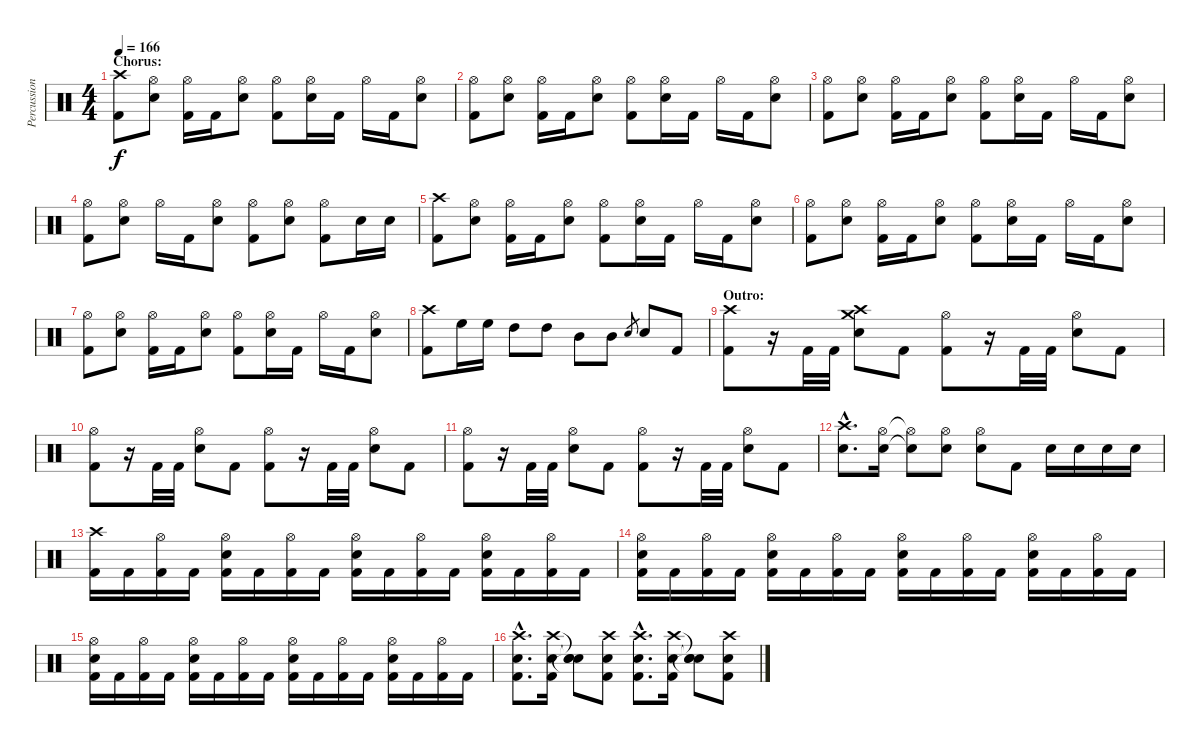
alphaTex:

\track ("Percussion" "Percussion") {instrument percussion}
\staff {score}
\articulation defaults
\ts (4 4)
\section ("" "Chorus:")
\tempo 166
\clef neutral
\ks c
("Crash high (hit)" "Kick (hit) 2").8{dy f} ("Hi-Hat (open)" "Electric Snare (hit)").8 ("Hi-Hat (open)" "Kick (hit) 2").16 "Kick (hit) 2".16 ("Hi-Hat (open)" "Electric Snare (hit)").8 ("Hi-Hat (open)" "Kick (hit) 2").8 ("Hi-Hat (open)" "Electric Snare (hit)").16 "Kick (hit) 2".16 "Hi-Hat (open)".16 "Kick (hit) 2".16 ("Hi-Hat (open)" "Electric Snare (hit)").8 |
("Hi-Hat (open)" "Kick (hit) 2").8 ("Hi-Hat (open)" "Electric Snare (hit)").8 ("Hi-Hat (open)" "Kick (hit) 2").16 "Kick (hit) 2".16 ("Hi-Hat (open)" "Electric Snare (hit)").8 ("Hi-Hat (open)" "Kick (hit) 2").8 ("Hi-Hat (open)" "Electric Snare (hit)").16 "Kick (hit) 2".16 "Hi-Hat (open)".16 "Kick (hit) 2".16 ("Hi-Hat (open)" "Electric Snare (hit)").8 |
("Hi-Hat (open)" "Kick (hit) 2").8 ("Hi-Hat (open)" "Electric Snare (hit)").8 ("Hi-Hat (open)" "Kick (hit) 2").16 "Kick (hit) 2".16 ("Hi-Hat (open)" "Electric Snare (hit)").8 ("Hi-Hat (open)" "Kick (hit) 2").8 ("Hi-Hat (open)" "Electric Snare (hit)").16 "Kick (hit) 2".16 "Hi-Hat (open)".16 "Kick (hit) 2".16 ("Hi-Hat (open)" "Electric Snare (hit)").8 |
("Hi-Hat (open)" "Kick (hit) 2").8 ("Hi-Hat (open)" "Electric Snare (hit)").8 "Hi-Hat (open)".16 "Kick (hit) 2".16 ("Hi-Hat (open)" "Electric Snare (hit)").8 ("Hi-Hat (open)" "Kick (hit) 2").8 ("Hi-Hat (open)" "Electric Snare (hit)").8 ("Hi-Hat (open)" "Kick (hit) 2").8 "Electric Snare (hit)".16 "Electric Snare (hit)".16 |
("Crash high (hit)" "Kick (hit) 2").8 ("Hi-Hat (open)" "Electric Snare (hit)").8 ("Hi-Hat (open)" "Kick (hit) 2").16 "Kick (hit) 2".16 ("Hi-Hat (open)" "Electric Snare (hit)").8 ("Hi-Hat (open)" "Kick (hit) 2").8 ("Hi-Hat (open)" "Electric Snare (hit)").16 "Kick (hit) 2".16 "Hi-Hat (open)".16 "Kick (hit) 2".16 ("Hi-Hat (open)" "Electric Snare (hit)").8 |
("Hi-Hat (open)" "Kick (hit) 2").8 ("Hi-Hat (open)" "Electric Snare (hit)").8 ("Hi-Hat (open)" "Kick (hit) 2").16 "Kick (hit) 2".16 ("Hi-Hat (open)" "Electric Snare (hit)").8 ("Hi-Hat (open)" "Kick (hit) 2").8 ("Hi-Hat (open)" "Electric Snare (hit)").16 "Kick (hit) 2".16 "Hi-Hat (open)".16 "Kick (hit) 2".16 ("Hi-Hat (open)" "Electric Snare (hit)").8 |
("Hi-Hat (open)" "Kick (hit) 2").8 ("Hi-Hat (open)" "Electric Snare (hit)").8 ("Hi-Hat (open)" "Kick (hit) 2").16 "Kick (hit) 2".16 ("Hi-Hat (open)" "Electric Snare (hit)").8 ("Hi-Hat (open)" "Kick (hit) 2").8 ("Hi-Hat (open)" "Electric Snare (hit)").16 "Kick (hit) 2".16 "Hi-Hat (open)".16 "Kick (hit) 2".16 ("Hi-Hat (open)" "Electric Snare (hit)").8 |
("Crash high (hit)" "Kick (hit) 2").8 "High Floor Tom (hit)".16 "High Floor Tom (hit)".16 "High Tom (hit)".8 "High Tom (hit)".8 "Mid Tom (hit)".8 "Mid Tom (hit)".8 "Electric Snare (hit)".8{gr} "Electric Snare (hit)".8 "Kick (hit) 2".8 |
\section ("" "Outro:")
("Crash high (hit)" "Kick (hit) 2").8 r.16 "Kick (hit) 2".32 "Kick (hit) 2".32 ("Crash high (hit)" "Crash medium (hit)" "Electric Snare (hit)").8 "Kick (hit) 2".8 ("Hi-Hat (open)" "Kick (hit) 2").8 r.16 "Kick (hit) 2".32 "Kick (hit) 2".32 ("Hi-Hat (open)" "Electric Snare (hit)").8 "Kick (hit) 2".8 |
("Hi-Hat (open)" "Kick (hit) 2").8 r.16 "Kick (hit) 2".32 "Kick (hit) 2".32 ("Hi-Hat (open)" "Electric Snare (hit)").8 "Kick (hit) 2".8 ("Hi-Hat (open)" "Kick (hit) 2").8 r.16 "Kick (hit) 2".32 "Kick (hit) 2".32 ("Hi-Hat (open)" "Electric Snare (hit)").8 "Kick (hit) 2".8 |
("Hi-Hat (open)" "Kick (hit) 2").8 r.16 "Kick (hit) 2".32 "Kick (hit) 2".32 ("Hi-Hat (open)" "Electric Snare (hit)").8 "Kick (hit) 2".8 ("Hi-Hat (open)" "Kick (hit) 2").8 r.16 "Kick (hit) 2".32 "Kick (hit) 2".32 ("Hi-Hat (open)" "Electric Snare (hit)").8 "Kick (hit) 2".8 |
("Crash high (hit)"{hac} "Electric Snare (hit)"{hac}).8{d} ("Hi-Hat (open)" "Electric Snare (hit)").16 ("Hi-Hat (open)"{t} "Snare (hit)"{t}).8 ("Hi-Hat (open)" "Electric Snare (hit)").8 ("Hi-Hat (open)" "Electric Snare (hit)").8 "Kick (hit) 2".8 "Electric Snare (hit)".16 "Electric Snare (hit)".16 "Electric Snare (hit)".16 "Electric Snare (hit)".16 |
("Crash high (hit)" "Kick (hit) 2").16 "Kick (hit) 2".16 ("Hi-Hat (open)" "Kick (hit) 2").16 "Kick (hit) 2".16 ("Hi-Hat (open)" "Electric Snare (hit)" "Kick (hit) 2").16 "Kick (hit) 2".16 ("Hi-Hat (open)" "Kick (hit) 2").16 "Kick (hit) 2".16 ("Hi-Hat (open)" "Electric Snare (hit)" "Kick (hit) 2").16 "Kick (hit) 2".16 ("Hi-Hat (open)" "Kick (hit) 2").16 "Kick (hit) 2".16 ("Hi-Hat (open)" "Electric Snare (hit)" "Kick (hit) 2").16 "Kick (hit) 2".16 ("Hi-Hat (open)" "Kick (hit) 2").16 "Kick (hit) 2".16 |
("Hi-Hat (open)" "Electric Snare (hit)" "Kick (hit) 2").16 "Kick (hit) 2".16 ("Hi-Hat (open)" "Kick (hit) 2").16 "Kick (hit) 2".16 ("Hi-Hat (open)" "Electric Snare (hit)" "Kick (hit) 2").16 "Kick (hit) 2".16 ("Hi-Hat (open)" "Kick (hit) 2").16 "Kick (hit) 2".16 ("Hi-Hat (open)" "Electric Snare (hit)" "Kick (hit) 2").16 "Kick (hit) 2".16 ("Hi-Hat (open)" "Kick (hit) 2").16 "Kick (hit) 2".16 ("Hi-Hat (open)" "Electric Snare (hit)" "Kick (hit) 2").16 "Kick (hit) 2".16 ("Hi-Hat (open)" "Kick (hit) 2").16 "Kick (hit) 2".16 |
("Hi-Hat (open)" "Electric Snare (hit)" "Kick (hit) 2").16 "Kick (hit) 2".16 ("Hi-Hat (open)" "Kick (hit) 2").16 "Kick (hit) 2".16 ("Hi-Hat (open)" "Electric Snare (hit)" "Kick (hit) 2").16 "Kick (hit) 2".16 ("Hi-Hat (open)" "Kick (hit) 2").16 "Kick (hit) 2".16 ("Hi-Hat (open)" "Electric Snare (hit)" "Kick (hit) 2").16 "Kick (hit) 2".16 ("Hi-Hat (open)" "Kick (hit) 2").16 "Kick (hit) 2".16 ("Hi-Hat (open)" "Electric Snare (hit)" "Kick (hit) 2").16 "Kick (hit) 2".16 ("Hi-Hat (open)" "Kick (hit) 2").16 "Kick (hit) 2".16 |
("Crash high (hit)"{hac} "Electric Snare (hit)"{hac} "Kick (hit) 2"{hac}).8{d} ("Crash high (hit)" "Electric Snare (hit)" "Kick (hit) 2").16 ("Snare (hit)"{t} "Snare (hit)"{t} "Snare (hit)"{t}).8 ("Crash high (hit)" "Electric Snare (hit)" "Kick (hit) 2").8 ("Crash high (hit)"{hac} "Electric Snare (hit)"{hac} "Kick (hit) 2"{hac}).8{d} ("Crash high (hit)" "Electric Snare (hit)" "Kick (hit) 2").16 ("Snare (hit)"{t} "Snare (hit)"{t} "Snare (hit)"{t}).8 ("Crash high (hit)" "Electric Snare (hit)" "Kick (hit) 2").8
